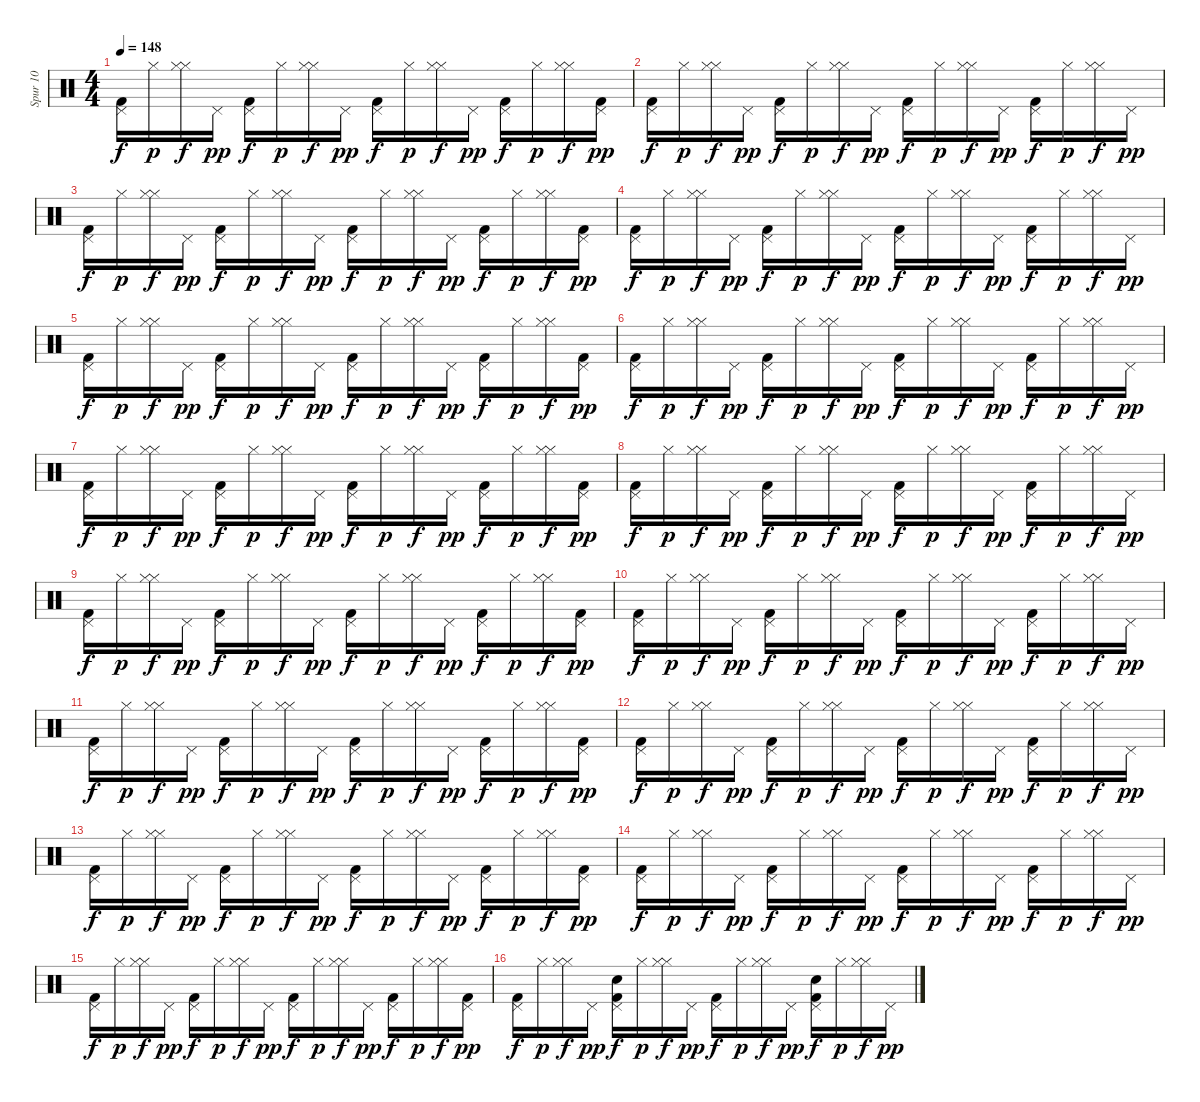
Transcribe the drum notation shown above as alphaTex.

\track ("Spur 10" "Spur 10") {instrument percussion}
\staff {score}
\articulation defaults
\ts (4 4)
\tempo 148
\clef neutral
\ks c
("Pedal Hi-Hat (hit)" "Kick (hit) 2").16{dy f} "Hi-Hat (closed)".16{dy p} ("Hi-Hat (closed)" "Hi-Hat (closed)").16{dy f} "Pedal Hi-Hat (hit)".16{dy pp} ("Pedal Hi-Hat (hit)" "Kick (hit) 2").16{dy f} "Hi-Hat (closed)".16{dy p} ("Hi-Hat (closed)" "Hi-Hat (closed)").16{dy f} "Pedal Hi-Hat (hit)".16{dy pp} ("Pedal Hi-Hat (hit)" "Kick (hit) 2").16{dy f} "Hi-Hat (closed)".16{dy p} ("Hi-Hat (closed)" "Hi-Hat (closed)").16{dy f} "Pedal Hi-Hat (hit)".16{dy pp} ("Pedal Hi-Hat (hit)" "Kick (hit) 2").16{dy f} "Hi-Hat (closed)".16{dy p} ("Hi-Hat (closed)" "Hi-Hat (closed)").16{dy f} ("Kick (hit) 2" "Pedal Hi-Hat (hit)").16{dy pp} |
("Pedal Hi-Hat (hit)" "Kick (hit) 2").16{dy f} "Hi-Hat (closed)".16{dy p} ("Hi-Hat (closed)" "Hi-Hat (closed)").16{dy f} "Pedal Hi-Hat (hit)".16{dy pp} ("Pedal Hi-Hat (hit)" "Kick (hit) 2").16{dy f} "Hi-Hat (closed)".16{dy p} ("Hi-Hat (closed)" "Hi-Hat (closed)").16{dy f} "Pedal Hi-Hat (hit)".16{dy pp} ("Pedal Hi-Hat (hit)" "Kick (hit) 2").16{dy f} "Hi-Hat (closed)".16{dy p} ("Hi-Hat (closed)" "Hi-Hat (closed)").16{dy f} "Pedal Hi-Hat (hit)".16{dy pp} ("Pedal Hi-Hat (hit)" "Kick (hit) 2").16{dy f} "Hi-Hat (closed)".16{dy p} ("Hi-Hat (closed)" "Hi-Hat (closed)").16{dy f} "Pedal Hi-Hat (hit)".16{dy pp} |
("Pedal Hi-Hat (hit)" "Kick (hit) 2").16{dy f} "Hi-Hat (closed)".16{dy p} ("Hi-Hat (closed)" "Hi-Hat (closed)").16{dy f} "Pedal Hi-Hat (hit)".16{dy pp} ("Pedal Hi-Hat (hit)" "Kick (hit) 2").16{dy f} "Hi-Hat (closed)".16{dy p} ("Hi-Hat (closed)" "Hi-Hat (closed)").16{dy f} "Pedal Hi-Hat (hit)".16{dy pp} ("Pedal Hi-Hat (hit)" "Kick (hit) 2").16{dy f} "Hi-Hat (closed)".16{dy p} ("Hi-Hat (closed)" "Hi-Hat (closed)").16{dy f} "Pedal Hi-Hat (hit)".16{dy pp} ("Pedal Hi-Hat (hit)" "Kick (hit) 2").16{dy f} "Hi-Hat (closed)".16{dy p} ("Hi-Hat (closed)" "Hi-Hat (closed)").16{dy f} ("Kick (hit) 2" "Pedal Hi-Hat (hit)").16{dy pp} |
("Pedal Hi-Hat (hit)" "Kick (hit) 2").16{dy f} "Hi-Hat (closed)".16{dy p} ("Hi-Hat (closed)" "Hi-Hat (closed)").16{dy f} "Pedal Hi-Hat (hit)".16{dy pp} ("Pedal Hi-Hat (hit)" "Kick (hit) 2").16{dy f} "Hi-Hat (closed)".16{dy p} ("Hi-Hat (closed)" "Hi-Hat (closed)").16{dy f} "Pedal Hi-Hat (hit)".16{dy pp} ("Pedal Hi-Hat (hit)" "Kick (hit) 2").16{dy f} "Hi-Hat (closed)".16{dy p} ("Hi-Hat (closed)" "Hi-Hat (closed)").16{dy f} "Pedal Hi-Hat (hit)".16{dy pp} ("Pedal Hi-Hat (hit)" "Kick (hit) 2").16{dy f} "Hi-Hat (closed)".16{dy p} ("Hi-Hat (closed)" "Hi-Hat (closed)").16{dy f} "Pedal Hi-Hat (hit)".16{dy pp} |
("Pedal Hi-Hat (hit)" "Kick (hit) 2").16{dy f} "Hi-Hat (closed)".16{dy p} ("Hi-Hat (closed)" "Hi-Hat (closed)").16{dy f} "Pedal Hi-Hat (hit)".16{dy pp} ("Pedal Hi-Hat (hit)" "Kick (hit) 2").16{dy f} "Hi-Hat (closed)".16{dy p} ("Hi-Hat (closed)" "Hi-Hat (closed)").16{dy f} "Pedal Hi-Hat (hit)".16{dy pp} ("Pedal Hi-Hat (hit)" "Kick (hit) 2").16{dy f} "Hi-Hat (closed)".16{dy p} ("Hi-Hat (closed)" "Hi-Hat (closed)").16{dy f} "Pedal Hi-Hat (hit)".16{dy pp} ("Pedal Hi-Hat (hit)" "Kick (hit) 2").16{dy f} "Hi-Hat (closed)".16{dy p} ("Hi-Hat (closed)" "Hi-Hat (closed)").16{dy f} ("Kick (hit) 2" "Pedal Hi-Hat (hit)").16{dy pp} |
("Pedal Hi-Hat (hit)" "Kick (hit) 2").16{dy f} "Hi-Hat (closed)".16{dy p} ("Hi-Hat (closed)" "Hi-Hat (closed)").16{dy f} "Pedal Hi-Hat (hit)".16{dy pp} ("Pedal Hi-Hat (hit)" "Kick (hit) 2").16{dy f} "Hi-Hat (closed)".16{dy p} ("Hi-Hat (closed)" "Hi-Hat (closed)").16{dy f} "Pedal Hi-Hat (hit)".16{dy pp} ("Pedal Hi-Hat (hit)" "Kick (hit) 2").16{dy f} "Hi-Hat (closed)".16{dy p} ("Hi-Hat (closed)" "Hi-Hat (closed)").16{dy f} "Pedal Hi-Hat (hit)".16{dy pp} ("Pedal Hi-Hat (hit)" "Kick (hit) 2").16{dy f} "Hi-Hat (closed)".16{dy p} ("Hi-Hat (closed)" "Hi-Hat (closed)").16{dy f} "Pedal Hi-Hat (hit)".16{dy pp} |
("Pedal Hi-Hat (hit)" "Kick (hit) 2").16{dy f} "Hi-Hat (closed)".16{dy p} ("Hi-Hat (closed)" "Hi-Hat (closed)").16{dy f} "Pedal Hi-Hat (hit)".16{dy pp} ("Pedal Hi-Hat (hit)" "Kick (hit) 2").16{dy f} "Hi-Hat (closed)".16{dy p} ("Hi-Hat (closed)" "Hi-Hat (closed)").16{dy f} "Pedal Hi-Hat (hit)".16{dy pp} ("Pedal Hi-Hat (hit)" "Kick (hit) 2").16{dy f} "Hi-Hat (closed)".16{dy p} ("Hi-Hat (closed)" "Hi-Hat (closed)").16{dy f} "Pedal Hi-Hat (hit)".16{dy pp} ("Pedal Hi-Hat (hit)" "Kick (hit) 2").16{dy f} "Hi-Hat (closed)".16{dy p} ("Hi-Hat (closed)" "Hi-Hat (closed)").16{dy f} ("Kick (hit) 2" "Pedal Hi-Hat (hit)").16{dy pp} |
("Pedal Hi-Hat (hit)" "Kick (hit) 2").16{dy f} "Hi-Hat (closed)".16{dy p} ("Hi-Hat (closed)" "Hi-Hat (closed)").16{dy f} "Pedal Hi-Hat (hit)".16{dy pp} ("Pedal Hi-Hat (hit)" "Kick (hit) 2").16{dy f} "Hi-Hat (closed)".16{dy p} ("Hi-Hat (closed)" "Hi-Hat (closed)").16{dy f} "Pedal Hi-Hat (hit)".16{dy pp} ("Pedal Hi-Hat (hit)" "Kick (hit) 2").16{dy f} "Hi-Hat (closed)".16{dy p} ("Hi-Hat (closed)" "Hi-Hat (closed)").16{dy f} "Pedal Hi-Hat (hit)".16{dy pp} ("Pedal Hi-Hat (hit)" "Kick (hit) 2").16{dy f} "Hi-Hat (closed)".16{dy p} ("Hi-Hat (closed)" "Hi-Hat (closed)").16{dy f} "Pedal Hi-Hat (hit)".16{dy pp} |
("Pedal Hi-Hat (hit)" "Kick (hit) 2").16{dy f} "Hi-Hat (closed)".16{dy p} ("Hi-Hat (closed)" "Hi-Hat (closed)").16{dy f} "Pedal Hi-Hat (hit)".16{dy pp} ("Pedal Hi-Hat (hit)" "Kick (hit) 2").16{dy f} "Hi-Hat (closed)".16{dy p} ("Hi-Hat (closed)" "Hi-Hat (closed)").16{dy f} "Pedal Hi-Hat (hit)".16{dy pp} ("Pedal Hi-Hat (hit)" "Kick (hit) 2").16{dy f} "Hi-Hat (closed)".16{dy p} ("Hi-Hat (closed)" "Hi-Hat (closed)").16{dy f} "Pedal Hi-Hat (hit)".16{dy pp} ("Pedal Hi-Hat (hit)" "Kick (hit) 2").16{dy f} "Hi-Hat (closed)".16{dy p} ("Hi-Hat (closed)" "Hi-Hat (closed)").16{dy f} ("Kick (hit) 2" "Pedal Hi-Hat (hit)").16{dy pp} |
("Pedal Hi-Hat (hit)" "Kick (hit) 2").16{dy f} "Hi-Hat (closed)".16{dy p} ("Hi-Hat (closed)" "Hi-Hat (closed)").16{dy f} "Pedal Hi-Hat (hit)".16{dy pp} ("Pedal Hi-Hat (hit)" "Kick (hit) 2").16{dy f} "Hi-Hat (closed)".16{dy p} ("Hi-Hat (closed)" "Hi-Hat (closed)").16{dy f} "Pedal Hi-Hat (hit)".16{dy pp} ("Pedal Hi-Hat (hit)" "Kick (hit) 2").16{dy f} "Hi-Hat (closed)".16{dy p} ("Hi-Hat (closed)" "Hi-Hat (closed)").16{dy f} "Pedal Hi-Hat (hit)".16{dy pp} ("Pedal Hi-Hat (hit)" "Kick (hit) 2").16{dy f} "Hi-Hat (closed)".16{dy p} ("Hi-Hat (closed)" "Hi-Hat (closed)").16{dy f} "Pedal Hi-Hat (hit)".16{dy pp} |
("Pedal Hi-Hat (hit)" "Kick (hit) 2").16{dy f} "Hi-Hat (closed)".16{dy p} ("Hi-Hat (closed)" "Hi-Hat (closed)").16{dy f} "Pedal Hi-Hat (hit)".16{dy pp} ("Pedal Hi-Hat (hit)" "Kick (hit) 2").16{dy f} "Hi-Hat (closed)".16{dy p} ("Hi-Hat (closed)" "Hi-Hat (closed)").16{dy f} "Pedal Hi-Hat (hit)".16{dy pp} ("Pedal Hi-Hat (hit)" "Kick (hit) 2").16{dy f} "Hi-Hat (closed)".16{dy p} ("Hi-Hat (closed)" "Hi-Hat (closed)").16{dy f} "Pedal Hi-Hat (hit)".16{dy pp} ("Pedal Hi-Hat (hit)" "Kick (hit) 2").16{dy f} "Hi-Hat (closed)".16{dy p} ("Hi-Hat (closed)" "Hi-Hat (closed)").16{dy f} ("Kick (hit) 2" "Pedal Hi-Hat (hit)").16{dy pp} |
("Pedal Hi-Hat (hit)" "Kick (hit) 2").16{dy f} "Hi-Hat (closed)".16{dy p} ("Hi-Hat (closed)" "Hi-Hat (closed)").16{dy f} "Pedal Hi-Hat (hit)".16{dy pp} ("Pedal Hi-Hat (hit)" "Kick (hit) 2").16{dy f} "Hi-Hat (closed)".16{dy p} ("Hi-Hat (closed)" "Hi-Hat (closed)").16{dy f} "Pedal Hi-Hat (hit)".16{dy pp} ("Pedal Hi-Hat (hit)" "Kick (hit) 2").16{dy f} "Hi-Hat (closed)".16{dy p} ("Hi-Hat (closed)" "Hi-Hat (closed)").16{dy f} "Pedal Hi-Hat (hit)".16{dy pp} ("Pedal Hi-Hat (hit)" "Kick (hit) 2").16{dy f} "Hi-Hat (closed)".16{dy p} ("Hi-Hat (closed)" "Hi-Hat (closed)").16{dy f} "Pedal Hi-Hat (hit)".16{dy pp} |
("Pedal Hi-Hat (hit)" "Kick (hit) 2").16{dy f} "Hi-Hat (closed)".16{dy p} ("Hi-Hat (closed)" "Hi-Hat (closed)").16{dy f} "Pedal Hi-Hat (hit)".16{dy pp} ("Pedal Hi-Hat (hit)" "Kick (hit) 2").16{dy f} "Hi-Hat (closed)".16{dy p} ("Hi-Hat (closed)" "Hi-Hat (closed)").16{dy f} "Pedal Hi-Hat (hit)".16{dy pp} ("Pedal Hi-Hat (hit)" "Kick (hit) 2").16{dy f} "Hi-Hat (closed)".16{dy p} ("Hi-Hat (closed)" "Hi-Hat (closed)").16{dy f} "Pedal Hi-Hat (hit)".16{dy pp} ("Pedal Hi-Hat (hit)" "Kick (hit) 2").16{dy f} "Hi-Hat (closed)".16{dy p} ("Hi-Hat (closed)" "Hi-Hat (closed)").16{dy f} ("Kick (hit) 2" "Pedal Hi-Hat (hit)").16{dy pp} |
("Pedal Hi-Hat (hit)" "Kick (hit) 2").16{dy f} "Hi-Hat (closed)".16{dy p} ("Hi-Hat (closed)" "Hi-Hat (closed)").16{dy f} "Pedal Hi-Hat (hit)".16{dy pp} ("Pedal Hi-Hat (hit)" "Kick (hit) 2").16{dy f} "Hi-Hat (closed)".16{dy p} ("Hi-Hat (closed)" "Hi-Hat (closed)").16{dy f} "Pedal Hi-Hat (hit)".16{dy pp} ("Pedal Hi-Hat (hit)" "Kick (hit) 2").16{dy f} "Hi-Hat (closed)".16{dy p} ("Hi-Hat (closed)" "Hi-Hat (closed)").16{dy f} "Pedal Hi-Hat (hit)".16{dy pp} ("Pedal Hi-Hat (hit)" "Kick (hit) 2").16{dy f} "Hi-Hat (closed)".16{dy p} ("Hi-Hat (closed)" "Hi-Hat (closed)").16{dy f} "Pedal Hi-Hat (hit)".16{dy pp} |
("Pedal Hi-Hat (hit)" "Kick (hit) 2").16{dy f} "Hi-Hat (closed)".16{dy p} ("Hi-Hat (closed)" "Hi-Hat (closed)").16{dy f} "Pedal Hi-Hat (hit)".16{dy pp} ("Pedal Hi-Hat (hit)" "Kick (hit) 2").16{dy f} "Hi-Hat (closed)".16{dy p} ("Hi-Hat (closed)" "Hi-Hat (closed)").16{dy f} "Pedal Hi-Hat (hit)".16{dy pp} ("Pedal Hi-Hat (hit)" "Kick (hit) 2").16{dy f} "Hi-Hat (closed)".16{dy p} ("Hi-Hat (closed)" "Hi-Hat (closed)").16{dy f} "Pedal Hi-Hat (hit)".16{dy pp} ("Pedal Hi-Hat (hit)" "Kick (hit) 2").16{dy f} "Hi-Hat (closed)".16{dy p} ("Hi-Hat (closed)" "Hi-Hat (closed)").16{dy f} ("Kick (hit) 2" "Pedal Hi-Hat (hit)").16{dy pp} |
("Pedal Hi-Hat (hit)" "Kick (hit) 2").16{dy f} "Hi-Hat (closed)".16{dy p} ("Hi-Hat (closed)" "Hi-Hat (closed)").16{dy f} "Pedal Hi-Hat (hit)".16{dy pp} ("Pedal Hi-Hat (hit)" "Kick (hit) 2" "Snare (hit) 2").16{dy f} "Hi-Hat (closed)".16{dy p} ("Hi-Hat (closed)" "Hi-Hat (closed)").16{dy f} "Pedal Hi-Hat (hit)".16{dy pp} ("Pedal Hi-Hat (hit)" "Kick (hit) 2").16{dy f} "Hi-Hat (closed)".16{dy p} ("Hi-Hat (closed)" "Hi-Hat (closed)").16{dy f} "Pedal Hi-Hat (hit)".16{dy pp} ("Pedal Hi-Hat (hit)" "Kick (hit) 2" "Snare (hit) 2").16{dy f} "Hi-Hat (closed)".16{dy p} ("Hi-Hat (closed)" "Hi-Hat (closed)").16{dy f} "Pedal Hi-Hat (hit)".16{dy pp}
